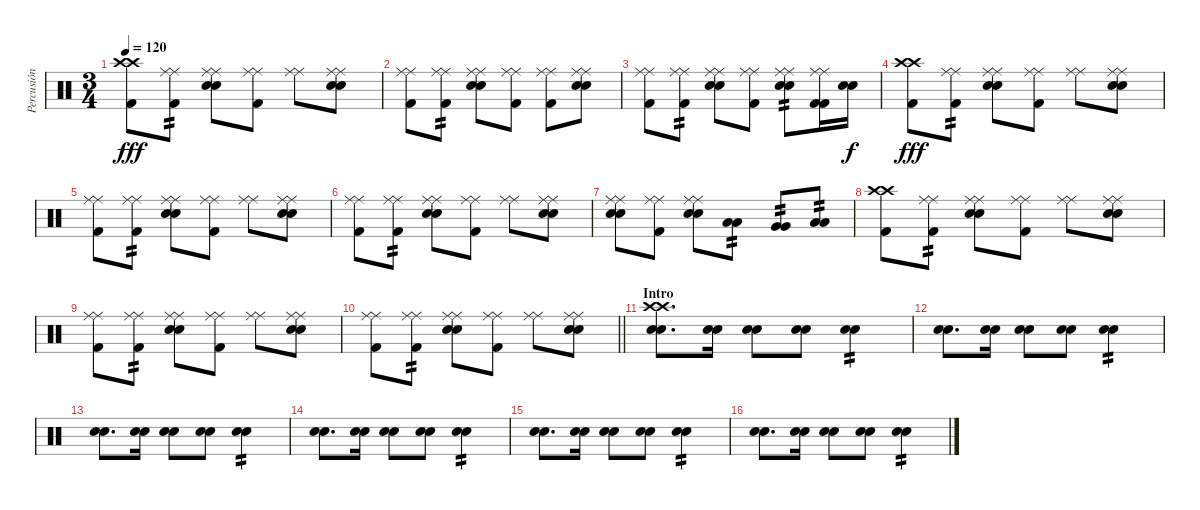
\track ("Percusión" "Percusión") {instrument percussion}
\staff {score}
\articulation defaults
\ts (3 4)
\tempo 120
\clef neutral
\ks c
("Crash high (hit)" "Crash high (hit)" "Kick (hit) 2").8{dy fff} ("Ride (middle)" "Ride (middle)" "Kick (hit) 2").8{tp 2} ("Ride (middle)" "Ride (middle)" "Electric Snare (hit)" "Electric Snare (hit)").8 ("Ride (middle)" "Ride (middle)" "Kick (hit) 2").8 ("Ride (middle)" "Ride (middle)").8 ("Ride (middle)" "Ride (middle)" "Electric Snare (hit)" "Electric Snare (hit)").8 |
("Ride (middle)" "Ride (middle)" "Kick (hit) 2").8 ("Ride (middle)" "Ride (middle)" "Kick (hit) 2").8{tp 2} ("Ride (middle)" "Ride (middle)" "Electric Snare (hit)" "Electric Snare (hit)").8 ("Ride (middle)" "Ride (middle)" "Kick (hit) 2").8 ("Ride (middle)" "Ride (middle)" "Kick (hit) 2").8 ("Ride (middle)" "Ride (middle)" "Electric Snare (hit)" "Electric Snare (hit)").8 |
("Ride (middle)" "Ride (middle)" "Kick (hit) 2").8 ("Ride (middle)" "Ride (middle)" "Kick (hit) 2").8{tp 2} ("Ride (middle)" "Ride (middle)" "Electric Snare (hit)" "Electric Snare (hit)").8 ("Ride (middle)" "Ride (middle)" "Kick (hit) 2").8 ("Ride (middle)" "Ride (middle)" "Electric Snare (hit)" "Electric Snare (hit)").8{tp 2} ("Ride (middle)" "Ride (middle)" "Kick (hit) 2" "Kick (hit) 2").16 ("Electric Snare (hit)" "Electric Snare (hit)").16{dy f} |
("Crash high (hit)" "Crash high (hit)" "Kick (hit) 2").8{dy fff} ("Ride (middle)" "Ride (middle)" "Kick (hit) 2").8{tp 2} ("Ride (middle)" "Ride (middle)" "Electric Snare (hit)" "Electric Snare (hit)").8 ("Ride (middle)" "Ride (middle)" "Kick (hit) 2").8 ("Ride (middle)" "Ride (middle)").8 ("Ride (middle)" "Ride (middle)" "Electric Snare (hit)" "Electric Snare (hit)").8 |
("Ride (middle)" "Ride (middle)" "Kick (hit) 2").8 ("Ride (middle)" "Ride (middle)" "Kick (hit) 2").8{tp 2} ("Ride (middle)" "Ride (middle)" "Electric Snare (hit)" "Electric Snare (hit)").8 ("Ride (middle)" "Ride (middle)" "Kick (hit) 2").8 ("Ride (middle)" "Ride (middle)").8 ("Ride (middle)" "Ride (middle)" "Electric Snare (hit)" "Electric Snare (hit)").8 |
("Ride (middle)" "Ride (middle)" "Kick (hit) 2").8 ("Ride (middle)" "Ride (middle)" "Kick (hit) 2").8{tp 2} ("Ride (middle)" "Ride (middle)" "Electric Snare (hit)" "Electric Snare (hit)").8 ("Ride (middle)" "Ride (middle)" "Kick (hit) 2").8 ("Ride (middle)" "Ride (middle)").8 ("Ride (middle)" "Ride (middle)" "Electric Snare (hit)" "Electric Snare (hit)").8 |
("Ride (middle)" "Ride (middle)" "Electric Snare (hit)" "Electric Snare (hit)").8 ("Ride (middle)" "Ride (middle)" "Kick (hit) 2").8 ("Ride (middle)" "Ride (middle)" "Electric Snare (hit)" "Electric Snare (hit)").8 ("Low Tom (hit)" "Low Tom (hit)").8{tp 2} ("Very Low Tom (hit)" "Very Low Tom (hit)").8{tp 2} ("Low Floor Tom (hit)" "Low Floor Tom (hit)").8{tp 2} |
("Crash high (hit)" "Crash high (hit)" "Kick (hit) 2").8 ("Ride (middle)" "Ride (middle)" "Kick (hit) 2").8{tp 2} ("Ride (middle)" "Ride (middle)" "Electric Snare (hit)" "Electric Snare (hit)").8 ("Ride (middle)" "Ride (middle)" "Kick (hit) 2").8 ("Ride (middle)" "Ride (middle)").8 ("Ride (middle)" "Ride (middle)" "Electric Snare (hit)" "Electric Snare (hit)").8 |
("Ride (middle)" "Ride (middle)" "Kick (hit) 2").8 ("Ride (middle)" "Ride (middle)" "Kick (hit) 2").8{tp 2} ("Ride (middle)" "Ride (middle)" "Electric Snare (hit)" "Electric Snare (hit)").8 ("Ride (middle)" "Ride (middle)" "Kick (hit) 2").8 ("Ride (middle)" "Ride (middle)").8 ("Ride (middle)" "Ride (middle)" "Electric Snare (hit)" "Electric Snare (hit)").8 |
\barLineRight lightlight
("Ride (middle)" "Ride (middle)" "Kick (hit) 2").8 ("Ride (middle)" "Ride (middle)" "Kick (hit) 2").8{tp 2} ("Ride (middle)" "Ride (middle)" "Electric Snare (hit)" "Electric Snare (hit)").8 ("Ride (middle)" "Ride (middle)" "Kick (hit) 2").8 ("Ride (middle)" "Ride (middle)").8 ("Ride (middle)" "Ride (middle)" "Electric Snare (hit)" "Electric Snare (hit)").8 |
\section ("" "Intro")
("Crash high (hit)" "Crash high (hit)" "Electric Snare (hit)" "Electric Snare (hit)").8{d} ("Electric Snare (hit)" "Electric Snare (hit)").16 ("Electric Snare (hit)" "Electric Snare (hit)").8 ("Electric Snare (hit)" "Electric Snare (hit)").8 ("Electric Snare (hit)" "Electric Snare (hit)").4{tp 2} |
("Electric Snare (hit)" "Electric Snare (hit)").8{d} ("Electric Snare (hit)" "Electric Snare (hit)").16 ("Electric Snare (hit)" "Electric Snare (hit)").8 ("Electric Snare (hit)" "Electric Snare (hit)").8 ("Electric Snare (hit)" "Electric Snare (hit)").4{tp 2} |
("Electric Snare (hit)" "Electric Snare (hit)").8{d} ("Electric Snare (hit)" "Electric Snare (hit)").16 ("Electric Snare (hit)" "Electric Snare (hit)").8 ("Electric Snare (hit)" "Electric Snare (hit)").8 ("Electric Snare (hit)" "Electric Snare (hit)").4{tp 2} |
("Electric Snare (hit)" "Electric Snare (hit)").8{d} ("Electric Snare (hit)" "Electric Snare (hit)").16 ("Electric Snare (hit)" "Electric Snare (hit)").8 ("Electric Snare (hit)" "Electric Snare (hit)").8 ("Electric Snare (hit)" "Electric Snare (hit)").4{tp 2} |
("Electric Snare (hit)" "Electric Snare (hit)").8{d} ("Electric Snare (hit)" "Electric Snare (hit)").16 ("Electric Snare (hit)" "Electric Snare (hit)").8 ("Electric Snare (hit)" "Electric Snare (hit)").8 ("Electric Snare (hit)" "Electric Snare (hit)").4{tp 2} |
("Electric Snare (hit)" "Electric Snare (hit)").8{d} ("Electric Snare (hit)" "Electric Snare (hit)").16 ("Electric Snare (hit)" "Electric Snare (hit)").8 ("Electric Snare (hit)" "Electric Snare (hit)").8 ("Electric Snare (hit)" "Electric Snare (hit)").4{tp 2}
